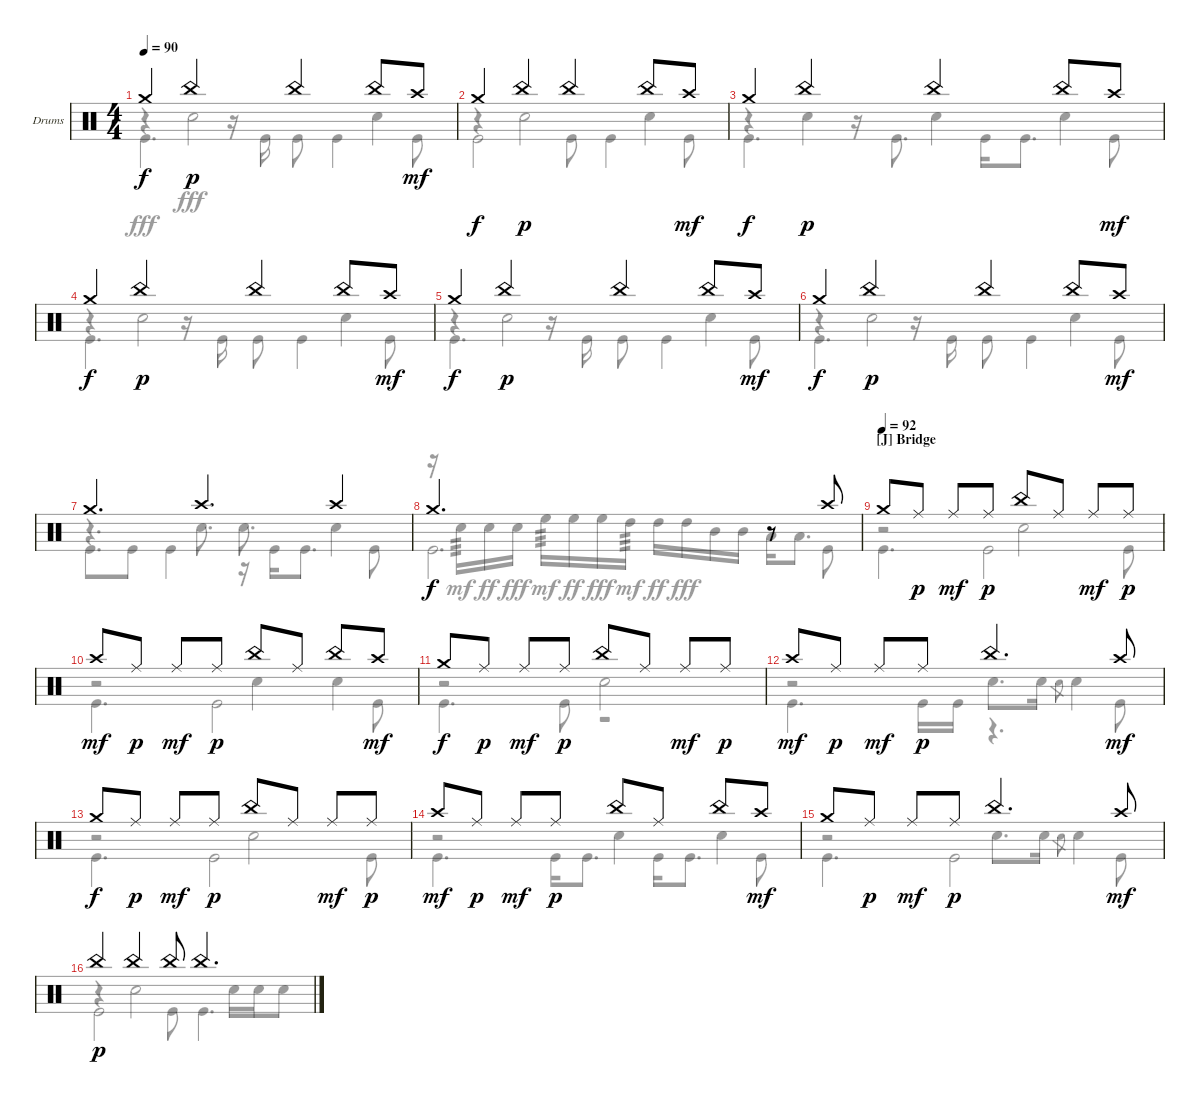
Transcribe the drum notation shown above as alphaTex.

\defaultSystemsLayout 4
\bracketExtendMode groupsimilarinstruments
\firstSystemTrackNameOrientation horizontal
\otherSystemsTrackNameOrientation horizontal
\track ("Drumkit" "Drums") {instrument percussion}
\staff {score}
\articulation defaults
\voice
\ts (4 4)
\tempo 90
\clef neutral
\ks c "Crash medium (hit)".4{dy f} "China (hit)".4{dy p} "China (hit)".4 "China (hit)".8 "Crash high (hit)".8{dy mf}
|
"Crash medium (hit)".4{dy f} "China (hit)".4{dy p} "China (hit)".4 "China (hit)".8 "Crash high (hit)".8{dy mf} |
"Crash medium (hit)".4{dy f} "China (hit)".4{dy p} "China (hit)".4 "China (hit)".8 "Crash high (hit)".8{dy mf} |
"Crash medium (hit)".4{dy f} "China (hit)".4{dy p} "China (hit)".4 "China (hit)".8 "Crash high (hit)".8{dy mf} |
"Crash medium (hit)".4{dy f} "China (hit)".4{dy p} "China (hit)".4 "China (hit)".8 "Crash high (hit)".8{dy mf} |
"Crash medium (hit)".4{dy f} "China (hit)".4{dy p} "China (hit)".4 "China (hit)".8 "Crash high (hit)".8{dy mf} |
"Crash medium (hit)".4{d} "Crash high (hit)".4{d} "Crash high (hit)".4 |
"Crash medium (hit)".2{d dy f} r.8 "Crash high (hit)".8 |
\section ("J" "Bridge")
\tempo (92)
"Crash medium (hit)".8 "Ride (middle)".8{dy p} "Ride (middle)".8{dy mf} "Ride (middle)".8{dy p} "China (hit)".8 "Ride (middle)".8 "Ride (middle)".8{dy mf} "Ride (middle)".8{dy p} |
"Crash high (hit)".8{dy mf} "Ride (middle)".8{dy p} "Ride (middle)".8{dy mf} "Ride (middle)".8{dy p} "China (hit)".8 "Ride (middle)".8 "China (hit)".8 "Crash high (hit)".8{dy mf} |
"Crash medium (hit)".8{dy f} "Ride (middle)".8{dy p} "Ride (middle)".8{dy mf} "Ride (middle)".8{dy p} "China (hit)".8 "Ride (middle)".8 "Ride (middle)".8{dy mf} "Ride (middle)".8{dy p} |
"Crash high (hit)".8{dy mf} "Ride (middle)".8{dy p} "Ride (middle)".8{dy mf} "Ride (middle)".8{dy p} "China (hit)".4{d} "Crash high (hit)".8{dy mf} |
"Crash medium (hit)".8{dy f} "Ride (middle)".8{dy p} "Ride (middle)".8{dy mf} "Ride (middle)".8{dy p} "China (hit)".8 "Ride (middle)".8 "Ride (middle)".8{dy mf} "Ride (middle)".8{dy p} |
"Crash high (hit)".8{dy mf} "Ride (middle)".8{dy p} "Ride (middle)".8{dy mf} "Ride (middle)".8{dy p} "China (hit)".8 "Ride (middle)".8 "China (hit)".8 "Crash high (hit)".8{dy mf} |
"Crash medium (hit)".8 "Ride (middle)".8{dy p} "Ride (middle)".8{dy mf} "Ride (middle)".8{dy p} "China (hit)".4{d} "Crash high (hit)".8{dy mf} |
"China (hit)".4{dy p} "China (hit)".4 "China (hit)".8 "China (hit)".4{d}
\voice
\clef neutral
\ottava regular
\simile none
\ks c
r.4{dy fff} "Snare (hit) 2".2 "Snare (hit) 2".4 |
r.4 "Snare (hit) 2".2 "Snare (hit) 2".4 |
r.4 "Snare (hit) 2".4 "Snare (hit) 2".4 "Snare (hit) 2".4 |
r.4 "Snare (hit) 2".2 "Snare (hit) 2".4 |
r.4 "Snare (hit) 2".2 "Snare (hit) 2".4 |
r.4 "Snare (hit) 2".2 "Snare (hit) 2".4 |
r.4{d} "Snare (hit) 2".8{d} "Snare (hit) 2".8{d} "Snare (hit) 2".4 |
r.16 "Snare (hit) 2".16{tp 3 dy mf} "Snare (hit) 2".16{dy ff} "Snare (hit) 2".16{dy fff} "High Floor Tom (hit)".16{tp 3 dy mf} "High Floor Tom (hit)".16{dy ff} "High Floor Tom (hit)".16{dy fff} "High Tom (hit)".16{tp 3 dy mf} "High Tom (hit)".16{dy ff} "High Tom (hit)".16{dy fff} "Mid Tom (hit)".16 "Mid Tom (hit)".16 "Low Tom (hit)".16 "Low Tom (hit)".8{d} |
r.2 "Snare (hit) 2".2 |
r.2 "Snare (hit) 2".4 "Snare (hit) 2".4 |
r.2 "Snare (hit) 2".2 |
r.2 "Snare (hit) 2".8{d} "Snare (hit) 2".16 "Snare (hit) 2".8{gr} "Snare (hit) 2".4 |
r.2 "Snare (hit) 2".2 |
r.2 "Snare (hit) 2".4 "Snare (hit) 2".4 |
r.2 "Snare (hit) 2".8{d} "Snare (hit) 2".16 "Snare (hit) 2".8{gr} "Snare (hit) 2".4 |
r.4 "Snare (hit) 2".2 "Snare (hit) 2".16 "Snare (hit) 2".16 "Snare (hit) 2".8
\voice
\clef neutral
\ottava regular
\simile none
\ks c "Kick (hit)".4{d dy fff}
r.16 "Kick (hit)".16 "Kick (hit)".8 "Kick (hit)".4 "Kick (hit)".8 |
"Kick (hit)".2 "Kick (hit)".8 "Kick (hit)".4 "Kick (hit)".8 |
"Kick (hit)".4{d} r.16 "Kick (hit)".8{d} "Kick (hit)".16 "Kick (hit)".8{d} "Kick (hit)".8 |
"Kick (hit)".4{d} r.16 "Kick (hit)".16 "Kick (hit)".8 "Kick (hit)".4 "Kick (hit)".8 |
"Kick (hit)".4{d} r.16 "Kick (hit)".16 "Kick (hit)".8 "Kick (hit)".4 "Kick (hit)".8 |
"Kick (hit)".4{d} r.16 "Kick (hit)".16 "Kick (hit)".8 "Kick (hit)".4 "Kick (hit)".8 |
"Kick (hit)".8{d} "Kick (hit)".8 "Kick (hit)".4 r.16 "Kick (hit)".16 "Kick (hit)".8{d} "Kick (hit)".8 |
"Kick (hit)".2{d} r.8 "Kick (hit)".8 |
"Kick (hit)".4{d} "Kick (hit)".2 "Kick (hit)".8 |
"Kick (hit)".4{d} "Kick (hit)".2 "Kick (hit)".8 |
"Kick (hit)".4{d} "Kick (hit)".8 r.2 |
"Kick (hit)".4{d} "Kick (hit)".16 "Kick (hit)".16 r.4{d} "Kick (hit)".8 |
"Kick (hit)".4{d} "Kick (hit)".2 "Kick (hit)".8 |
"Kick (hit)".4{d} "Kick (hit)".16 "Kick (hit)".8{d} "Kick (hit)".16 "Kick (hit)".8{d} "Kick (hit)".8 |
"Kick (hit)".4{d} "Kick (hit)".2 "Kick (hit)".8 |
"Kick (hit)".2 "Kick (hit)".8 "Kick (hit)".4{d}
